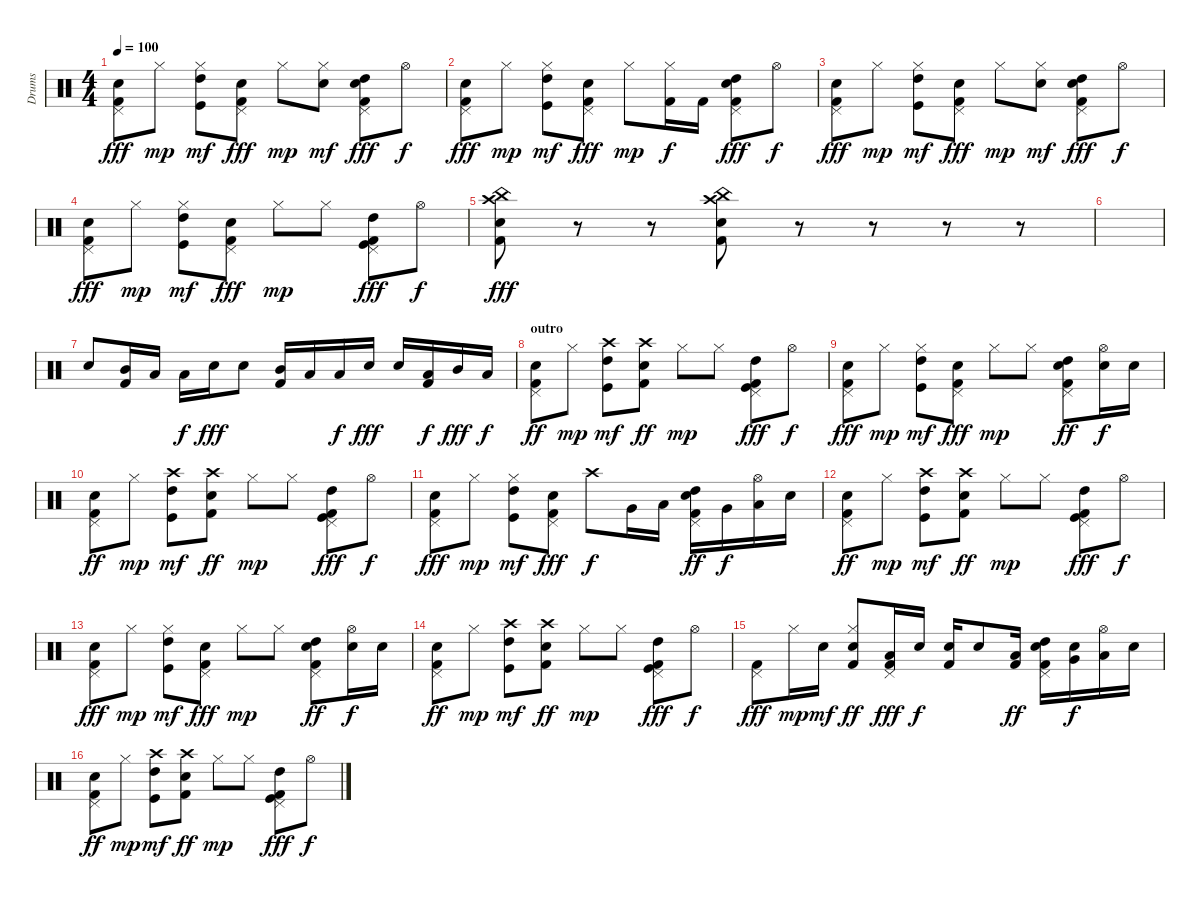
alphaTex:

\track ("Drums" "Drums") {instrument percussion}
\staff {score}
\articulation defaults
\ts (4 4)
\tempo 100
\clef neutral
\ks c
("Pedal Hi-Hat (hit)" "Snare (hit) 2" "Kick (hit) 2").8{dy fff} "Hi-Hat (closed)".8{dy mp} ("Hi-Hat (closed)" "Kick (hit)" "High Tom (hit)").8{dy mf} ("Pedal Hi-Hat (hit)" "Snare (hit) 2" "Kick (hit) 2").8{dy fff} "Hi-Hat (closed)".8{dy mp} ("Hi-Hat (closed)" "Snare (hit) 2").8{dy mf} ("Pedal Hi-Hat (hit)" "Snare (hit) 2" "High Tom (hit)" "Kick (hit) 2").8{dy fff} "Hi-Hat (open)".8{dy f} |
("Pedal Hi-Hat (hit)" "Snare (hit) 2" "Kick (hit) 2").8{dy fff} "Hi-Hat (closed)".8{dy mp} ("Hi-Hat (closed)" "Kick (hit)" "High Tom (hit)").8{dy mf} ("Pedal Hi-Hat (hit)" "Snare (hit) 2" "Kick (hit) 2").8{dy fff} "Hi-Hat (closed)".8{dy mp} ("Hi-Hat (closed)" "Kick (hit) 2").16{dy f} "Kick (hit) 2".16 ("Pedal Hi-Hat (hit)" "Snare (hit) 2" "High Tom (hit)" "Kick (hit) 2").8{dy fff} "Hi-Hat (open)".8{dy f} |
("Pedal Hi-Hat (hit)" "Snare (hit) 2" "Kick (hit) 2").8{dy fff} "Hi-Hat (closed)".8{dy mp} ("Hi-Hat (closed)" "Kick (hit)" "High Tom (hit)").8{dy mf} ("Pedal Hi-Hat (hit)" "Snare (hit) 2" "Kick (hit) 2").8{dy fff} "Hi-Hat (closed)".8{dy mp} ("Hi-Hat (closed)" "Snare (hit) 2").8{dy mf} ("Pedal Hi-Hat (hit)" "Snare (hit) 2" "High Tom (hit)" "Kick (hit) 2").8{dy fff} "Hi-Hat (open)".8{dy f} |
("Pedal Hi-Hat (hit)" "Snare (hit) 2" "Kick (hit) 2").8{dy fff} "Hi-Hat (closed)".8{dy mp} ("Hi-Hat (closed)" "Kick (hit)" "High Tom (hit)").8{dy mf} ("Pedal Hi-Hat (hit)" "Snare (hit) 2" "Kick (hit) 2").8{dy fff} "Hi-Hat (closed)".8{dy mp} "Hi-Hat (closed)".8 ("Pedal Hi-Hat (hit)" "Kick (hit)" "High Tom (hit)" "Kick (hit) 2").8{dy fff} "Hi-Hat (open)".8{dy f} |
("Crash high (hit)" "China (hit)" "Snare (hit) 2" "Kick (hit) 2").8{dy fff} r.8 r.8 ("Crash high (hit)" "China (hit)" "Snare (hit) 2" "Kick (hit) 2").8 r.8 r.8 r.8 r.8 |
|
"Electric Snare (hit)".8 ("Mid Tom (hit)" "Kick (hit) 2").16 "Low Tom (hit)".16 "Low Tom (hit)".16{dy f} "Electric Snare (hit)".16{dy fff} "Electric Snare (hit)".8 ("Mid Tom (hit)" "Kick (hit) 2").16 "Low Tom (hit)".16 "Low Tom (hit)".16{dy f} "Electric Snare (hit)".16{dy fff} "Electric Snare (hit)".16 ("Low Tom (hit)" "Kick (hit) 2").16{dy f} "Mid Tom (hit)".16{dy fff} "Low Tom (hit)".16{dy f} |
\section ("" "outro")
("Pedal Hi-Hat (hit)" "Snare (hit) 2" "Kick (hit) 2").8{dy ff} "Hi-Hat (closed)".8{dy mp} ("Crash high (hit)" "Kick (hit)" "High Tom (hit)").8{dy mf} ("Crash high (hit)" "Snare (hit) 2" "Kick (hit) 2").8{dy ff} "Hi-Hat (closed)".8{dy mp} "Hi-Hat (closed)".8 ("Pedal Hi-Hat (hit)" "Kick (hit)" "High Tom (hit)" "Kick (hit) 2").8{dy fff} "Hi-Hat (open)".8{dy f} |
("Pedal Hi-Hat (hit)" "Snare (hit) 2" "Kick (hit) 2").8{dy fff} "Hi-Hat (closed)".8{dy mp} ("Hi-Hat (closed)" "Kick (hit)" "High Tom (hit)").8{dy mf} ("Pedal Hi-Hat (hit)" "Snare (hit) 2" "Kick (hit) 2").8{dy fff} "Hi-Hat (closed)".8{dy mp} "Hi-Hat (closed)".8 ("Pedal Hi-Hat (hit)" "Snare (hit) 2" "High Tom (hit)" "Kick (hit) 2").8{dy ff} ("Hi-Hat (open)" "Snare (hit) 2").16{dy f} "Snare (hit) 2".16 |
("Pedal Hi-Hat (hit)" "Snare (hit) 2" "Kick (hit) 2").8{dy ff} "Hi-Hat (closed)".8{dy mp} ("Crash high (hit)" "Kick (hit)" "High Tom (hit)").8{dy mf} ("Crash high (hit)" "Snare (hit) 2" "Kick (hit) 2").8{dy ff} "Hi-Hat (closed)".8{dy mp} "Hi-Hat (closed)".8 ("Pedal Hi-Hat (hit)" "Kick (hit)" "High Tom (hit)" "Kick (hit) 2").8{dy fff} "Hi-Hat (open)".8{dy f} |
("Pedal Hi-Hat (hit)" "Snare (hit) 2" "Kick (hit) 2").8{dy fff} "Hi-Hat (closed)".8{dy mp} ("Hi-Hat (closed)" "Kick (hit)" "High Tom (hit)").8{dy mf} ("Pedal Hi-Hat (hit)" "Snare (hit) 2" "Kick (hit) 2").8{dy fff} "Crash high (hit)".8{dy f} "Very Low Tom (hit)".16 "Low Tom (hit)".16 ("Pedal Hi-Hat (hit)" "Snare (hit) 2" "High Tom (hit)" "Kick (hit) 2").16{dy ff} "Very Low Tom (hit)".16{dy f} ("Hi-Hat (open)" "Low Tom (hit)").16 "Snare (hit) 2".16 |
("Pedal Hi-Hat (hit)" "Snare (hit) 2" "Kick (hit) 2").8{dy ff} "Hi-Hat (closed)".8{dy mp} ("Crash high (hit)" "Kick (hit)" "High Tom (hit)").8{dy mf} ("Crash high (hit)" "Snare (hit) 2" "Kick (hit) 2").8{dy ff} "Hi-Hat (closed)".8{dy mp} "Hi-Hat (closed)".8 ("Pedal Hi-Hat (hit)" "Kick (hit)" "High Tom (hit)" "Kick (hit) 2").8{dy fff} "Hi-Hat (open)".8{dy f} |
("Pedal Hi-Hat (hit)" "Snare (hit) 2" "Kick (hit) 2").8{dy fff} "Hi-Hat (closed)".8{dy mp} ("Hi-Hat (closed)" "Kick (hit)" "High Tom (hit)").8{dy mf} ("Pedal Hi-Hat (hit)" "Snare (hit) 2" "Kick (hit) 2").8{dy fff} "Hi-Hat (closed)".8{dy mp} "Hi-Hat (closed)".8 ("Pedal Hi-Hat (hit)" "Snare (hit) 2" "High Tom (hit)" "Kick (hit) 2").8{dy ff} ("Hi-Hat (open)" "Snare (hit) 2").16{dy f} "Snare (hit) 2".16 |
("Pedal Hi-Hat (hit)" "Snare (hit) 2" "Kick (hit) 2").8{dy ff} "Hi-Hat (closed)".8{dy mp} ("Crash high (hit)" "Kick (hit)" "High Tom (hit)").8{dy mf} ("Crash high (hit)" "Snare (hit) 2" "Kick (hit) 2").8{dy ff} "Hi-Hat (closed)".8{dy mp} "Hi-Hat (closed)".8 ("Pedal Hi-Hat (hit)" "Kick (hit)" "High Tom (hit)" "Kick (hit) 2").8{dy fff} "Hi-Hat (open)".8{dy f} |
("Pedal Hi-Hat (hit)" "Kick (hit) 2").8{dy fff} "Hi-Hat (closed)".16{dy mp} "Electric Snare (hit)".16{dy mf} ("Hi-Hat (closed)" "Electric Snare (hit)" "Kick (hit) 2").8{dy ff} ("Pedal Hi-Hat (hit)" "Low Tom (hit)" "Kick (hit) 2").16{dy fff} "Electric Snare (hit)".16{dy f} ("Electric Snare (hit)" "Kick (hit) 2").16 "Electric Snare (hit)".8 ("Low Tom (hit)" "Kick (hit) 2").16{dy ff} ("Pedal Hi-Hat (hit)" "Electric Snare (hit)" "High Tom (hit)" "Kick (hit) 2").16 ("Electric Snare (hit)" "Very Low Tom (hit)").16{dy f} ("Hi-Hat (open)" "Low Tom (hit)").16 "Snare (hit) 2".16 |
("Pedal Hi-Hat (hit)" "Snare (hit) 2" "Kick (hit) 2").8{dy ff} "Hi-Hat (closed)".8{dy mp} ("Crash high (hit)" "Kick (hit)" "High Tom (hit)").8{dy mf} ("Crash high (hit)" "Snare (hit) 2" "Kick (hit) 2").8{dy ff} "Hi-Hat (closed)".8{dy mp} "Hi-Hat (closed)".8 ("Pedal Hi-Hat (hit)" "Kick (hit)" "High Tom (hit)" "Kick (hit) 2").8{dy fff} "Hi-Hat (open)".8{dy f}
